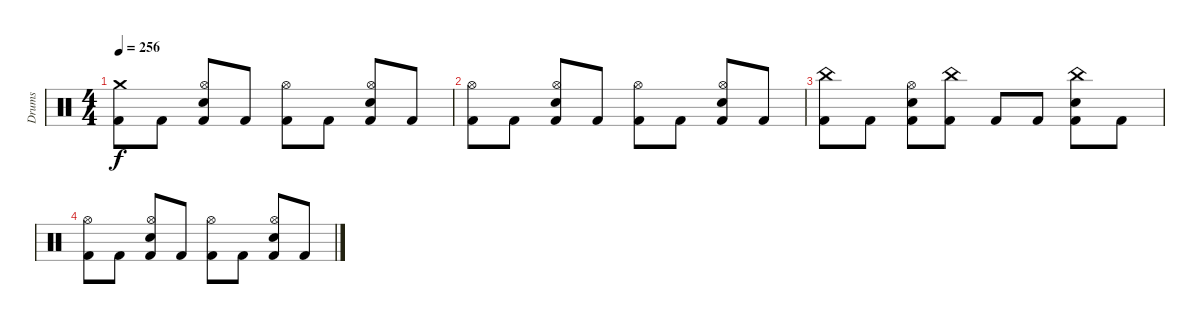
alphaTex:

\track ("Drums" "Drums") {instrument percussion}
\staff {score}
\articulation defaults
\ts (4 4)
\tempo 256
\clef neutral
\ks c
("Crash medium (hit)" "Kick (hit) 2").8{dy f} "Kick (hit) 2".8 ("Hi-Hat (open)" "Snare (hit) 2" "Kick (hit) 2").8 "Kick (hit) 2".8 ("Hi-Hat (open)" "Kick (hit) 2").8 "Kick (hit) 2".8 ("Hi-Hat (open)" "Snare (hit) 2" "Kick (hit) 2").8 "Kick (hit) 2".8 |
("Hi-Hat (open)" "Kick (hit) 2").8 "Kick (hit) 2".8 ("Hi-Hat (open)" "Snare (hit) 2" "Kick (hit) 2").8 "Kick (hit) 2".8 ("Hi-Hat (open)" "Kick (hit) 2").8 "Kick (hit) 2".8 ("Hi-Hat (open)" "Snare (hit) 2" "Kick (hit) 2").8 "Kick (hit) 2".8 |
("China (hit)" "Kick (hit) 2").8 "Kick (hit) 2".8 ("Hi-Hat (open)" "Snare (hit) 2" "Kick (hit) 2").8 ("China (hit)" "Kick (hit) 2").8 "Kick (hit) 2".8 "Kick (hit) 2".8 ("China (hit)" "Snare (hit) 2" "Kick (hit) 2").8 "Kick (hit) 2".8 |
("Hi-Hat (open)" "Kick (hit) 2").8 "Kick (hit) 2".8 ("Hi-Hat (open)" "Snare (hit) 2" "Kick (hit) 2").8 "Kick (hit) 2".8 ("Hi-Hat (open)" "Kick (hit) 2").8 "Kick (hit) 2".8 ("Hi-Hat (open)" "Snare (hit) 2" "Kick (hit) 2").8 "Kick (hit) 2".8
